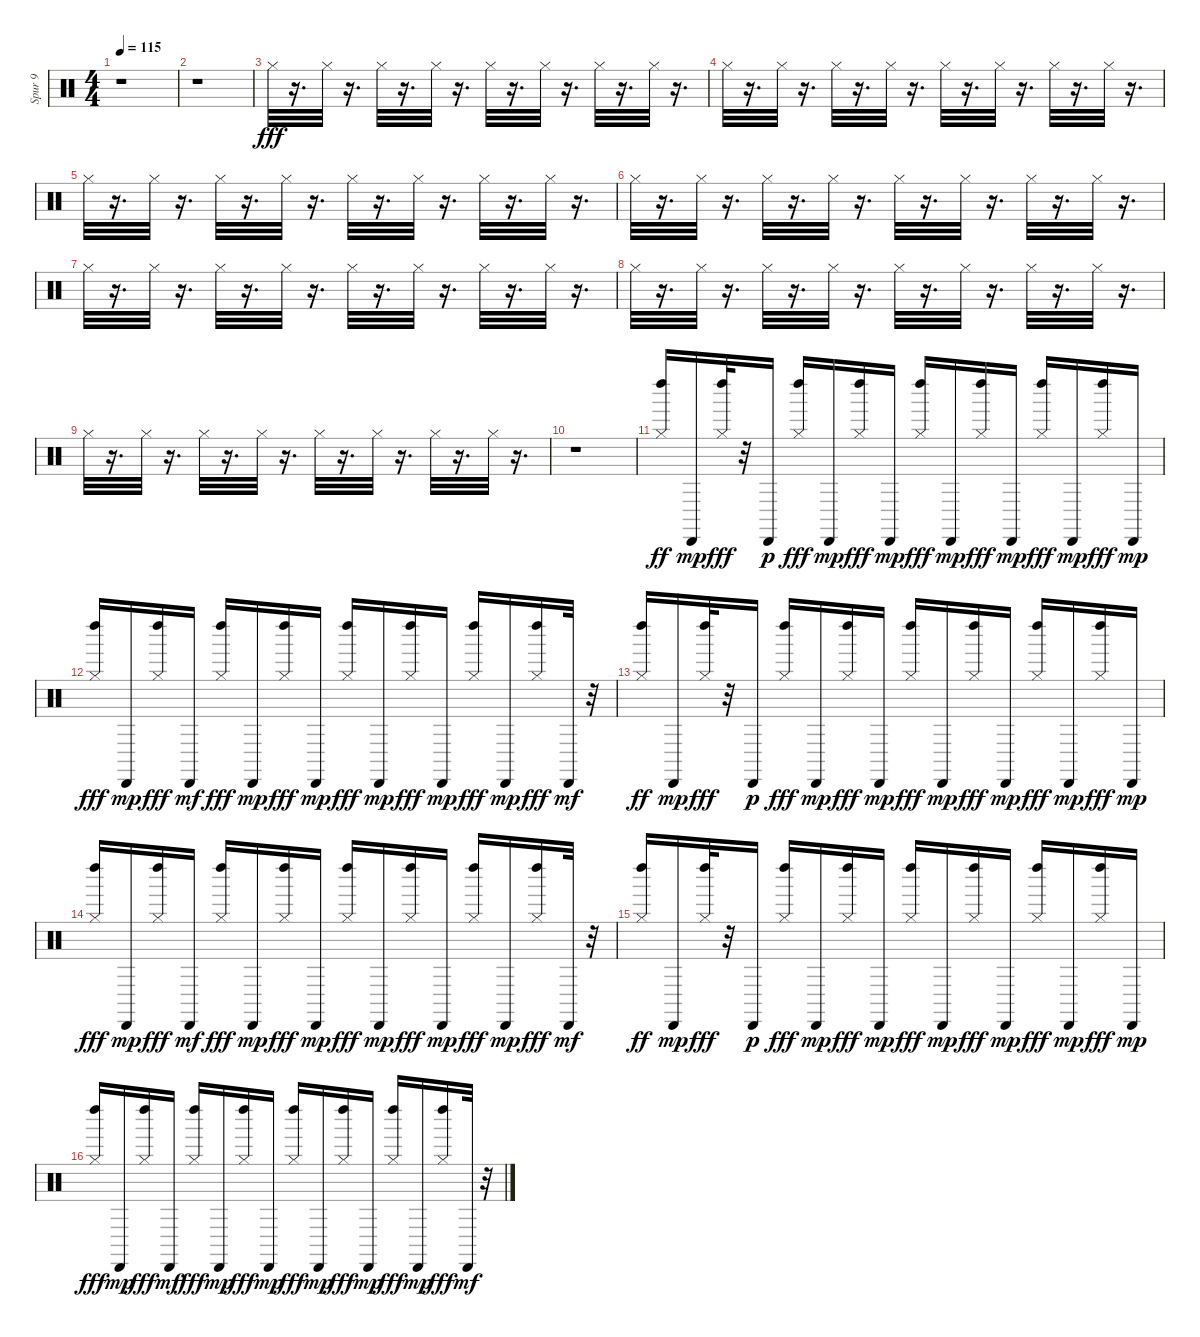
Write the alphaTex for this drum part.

\track ("Spur 9" "Spur 9") {instrument percussion}
\staff {score}
\articulation defaults
\ts (4 4)
\tempo 115
\clef neutral
\ks c
r.1{dy mp} |
r.1 |
"Hi-Hat (closed)".32{dy fff volume 15 balance 8} r.16{d} "Hi-Hat (closed)".32 r.16{d} "Hi-Hat (closed)".32 r.16{d} "Hi-Hat (closed)".32 r.16{d} "Hi-Hat (closed)".32 r.16{d} "Hi-Hat (closed)".32 r.16{d} "Hi-Hat (closed)".32 r.16{d} "Hi-Hat (closed)".32 r.16{d} |
"Hi-Hat (closed)".32 r.16{d} "Hi-Hat (closed)".32 r.16{d} "Hi-Hat (closed)".32 r.16{d} "Hi-Hat (closed)".32 r.16{d} "Hi-Hat (closed)".32 r.16{d} "Hi-Hat (closed)".32 r.16{d} "Hi-Hat (closed)".32 r.16{d} "Hi-Hat (closed)".32 r.16{d} |
"Hi-Hat (closed)".32 r.16{d} "Hi-Hat (closed)".32 r.16{d} "Hi-Hat (closed)".32 r.16{d} "Hi-Hat (closed)".32 r.16{d} "Hi-Hat (closed)".32 r.16{d} "Hi-Hat (closed)".32 r.16{d} "Hi-Hat (closed)".32 r.16{d} "Hi-Hat (closed)".32 r.16{d} |
"Hi-Hat (closed)".32 r.16{d} "Hi-Hat (closed)".32 r.16{d} "Hi-Hat (closed)".32 r.16{d} "Hi-Hat (closed)".32 r.16{d} "Hi-Hat (closed)".32 r.16{d} "Hi-Hat (closed)".32 r.16{d} "Hi-Hat (closed)".32 r.16{d} "Hi-Hat (closed)".32 r.16{d} |
"Hi-Hat (closed)".32 r.16{d} "Hi-Hat (closed)".32 r.16{d} "Hi-Hat (closed)".32 r.16{d} "Hi-Hat (closed)".32 r.16{d} "Hi-Hat (closed)".32 r.16{d} "Hi-Hat (closed)".32 r.16{d} "Hi-Hat (closed)".32 r.16{d} "Hi-Hat (closed)".32 r.16{d} |
"Hi-Hat (closed)".32 r.16{d} "Hi-Hat (closed)".32 r.16{d} "Hi-Hat (closed)".32 r.16{d} "Hi-Hat (closed)".32 r.16{d} "Hi-Hat (closed)".32 r.16{d} "Hi-Hat (closed)".32 r.16{d} "Hi-Hat (closed)".32 r.16{d} "Hi-Hat (closed)".32 r.16{d} |
"Hi-Hat (closed)".32 r.16{d} "Hi-Hat (closed)".32 r.16{d} "Hi-Hat (closed)".32 r.16{d} "Hi-Hat (closed)".32 r.16{d} "Hi-Hat (closed)".32 r.16{d} "Hi-Hat (closed)".32 r.16{d} "Hi-Hat (closed)".32 r.16{d} "Hi-Hat (closed)".32 r.16{d} |
r.1 |
("Hi-Hat (closed)" "Left Maraca (hit)").16{dy ff} "Cabasa (hit)".16{dy mp} ("Left Maraca (hit)" "Hi-Hat (closed)").32{dy fff} r.32 "Cabasa (hit)".16{dy p} ("Left Maraca (hit)" "Hi-Hat (closed)").16{dy fff} "Cabasa (hit)".16{dy mp} ("Left Maraca (hit)" "Hi-Hat (closed)").16{dy fff} "Cabasa (hit)".16{dy mp} ("Left Maraca (hit)" "Hi-Hat (closed)").16{dy fff} "Cabasa (hit)".16{dy mp} ("Left Maraca (hit)" "Hi-Hat (closed)").16{dy fff} "Cabasa (hit)".16{dy mp} ("Left Maraca (hit)" "Hi-Hat (closed)").16{dy fff} "Cabasa (hit)".16{dy mp} ("Left Maraca (hit)" "Hi-Hat (closed)").16{dy fff} "Cabasa (hit)".16{dy mp} |
("Left Maraca (hit)" "Hi-Hat (closed)").16{dy fff} "Cabasa (hit)".16{dy mp} ("Hi-Hat (closed)" "Left Maraca (hit)").16{dy fff} "Cabasa (hit)".16{dy mf} ("Hi-Hat (closed)" "Left Maraca (hit)").16{dy fff} "Cabasa (hit)".16{dy mp} ("Hi-Hat (closed)" "Left Maraca (hit)").16{dy fff} "Cabasa (hit)".16{dy mp} ("Left Maraca (hit)" "Hi-Hat (closed)").16{dy fff} "Cabasa (hit)".16{dy mp} ("Left Maraca (hit)" "Hi-Hat (closed)").16{dy fff} "Cabasa (hit)".16{dy mp} ("Left Maraca (hit)" "Hi-Hat (closed)").16{dy fff} "Cabasa (hit)".16{dy mp} ("Left Maraca (hit)" "Hi-Hat (closed)").16{dy fff} "Cabasa (hit)".32{dy mf} r.32 |
("Hi-Hat (closed)" "Left Maraca (hit)").16{dy ff} "Cabasa (hit)".16{dy mp} ("Left Maraca (hit)" "Hi-Hat (closed)").32{dy fff} r.32 "Cabasa (hit)".16{dy p} ("Left Maraca (hit)" "Hi-Hat (closed)").16{dy fff} "Cabasa (hit)".16{dy mp} ("Left Maraca (hit)" "Hi-Hat (closed)").16{dy fff} "Cabasa (hit)".16{dy mp} ("Left Maraca (hit)" "Hi-Hat (closed)").16{dy fff} "Cabasa (hit)".16{dy mp} ("Left Maraca (hit)" "Hi-Hat (closed)").16{dy fff} "Cabasa (hit)".16{dy mp} ("Left Maraca (hit)" "Hi-Hat (closed)").16{dy fff} "Cabasa (hit)".16{dy mp} ("Left Maraca (hit)" "Hi-Hat (closed)").16{dy fff} "Cabasa (hit)".16{dy mp} |
("Left Maraca (hit)" "Hi-Hat (closed)").16{dy fff} "Cabasa (hit)".16{dy mp} ("Hi-Hat (closed)" "Left Maraca (hit)").16{dy fff} "Cabasa (hit)".16{dy mf} ("Hi-Hat (closed)" "Left Maraca (hit)").16{dy fff} "Cabasa (hit)".16{dy mp} ("Hi-Hat (closed)" "Left Maraca (hit)").16{dy fff} "Cabasa (hit)".16{dy mp} ("Left Maraca (hit)" "Hi-Hat (closed)").16{dy fff} "Cabasa (hit)".16{dy mp} ("Left Maraca (hit)" "Hi-Hat (closed)").16{dy fff} "Cabasa (hit)".16{dy mp} ("Left Maraca (hit)" "Hi-Hat (closed)").16{dy fff} "Cabasa (hit)".16{dy mp} ("Left Maraca (hit)" "Hi-Hat (closed)").16{dy fff} "Cabasa (hit)".32{dy mf} r.32 |
("Hi-Hat (closed)" "Left Maraca (hit)").16{dy ff} "Cabasa (hit)".16{dy mp} ("Left Maraca (hit)" "Hi-Hat (closed)").32{dy fff} r.32 "Cabasa (hit)".16{dy p} ("Left Maraca (hit)" "Hi-Hat (closed)").16{dy fff} "Cabasa (hit)".16{dy mp} ("Left Maraca (hit)" "Hi-Hat (closed)").16{dy fff} "Cabasa (hit)".16{dy mp} ("Left Maraca (hit)" "Hi-Hat (closed)").16{dy fff} "Cabasa (hit)".16{dy mp} ("Left Maraca (hit)" "Hi-Hat (closed)").16{dy fff} "Cabasa (hit)".16{dy mp} ("Left Maraca (hit)" "Hi-Hat (closed)").16{dy fff} "Cabasa (hit)".16{dy mp} ("Left Maraca (hit)" "Hi-Hat (closed)").16{dy fff} "Cabasa (hit)".16{dy mp} |
("Left Maraca (hit)" "Hi-Hat (closed)").16{dy fff} "Cabasa (hit)".16{dy mp} ("Hi-Hat (closed)" "Left Maraca (hit)").16{dy fff} "Cabasa (hit)".16{dy mf} ("Hi-Hat (closed)" "Left Maraca (hit)").16{dy fff} "Cabasa (hit)".16{dy mp} ("Hi-Hat (closed)" "Left Maraca (hit)").16{dy fff} "Cabasa (hit)".16{dy mp} ("Left Maraca (hit)" "Hi-Hat (closed)").16{dy fff} "Cabasa (hit)".16{dy mp} ("Left Maraca (hit)" "Hi-Hat (closed)").16{dy fff} "Cabasa (hit)".16{dy mp} ("Left Maraca (hit)" "Hi-Hat (closed)").16{dy fff} "Cabasa (hit)".16{dy mp} ("Left Maraca (hit)" "Hi-Hat (closed)").16{dy fff} "Cabasa (hit)".32{dy mf} r.32
